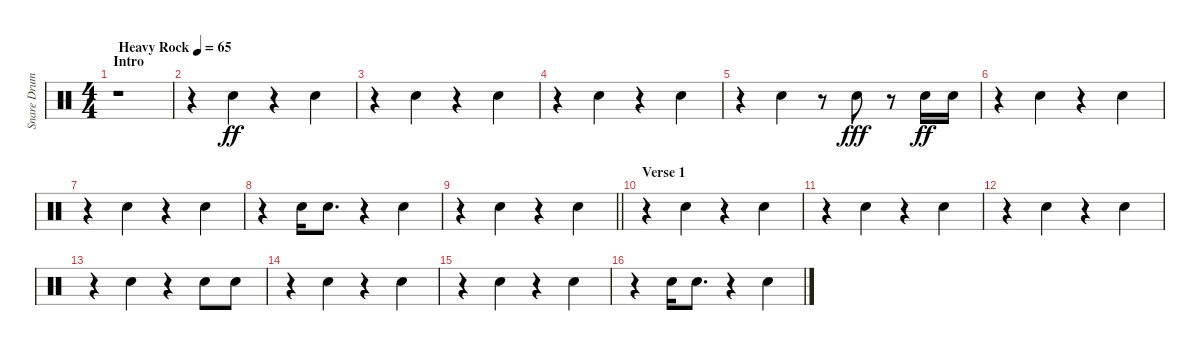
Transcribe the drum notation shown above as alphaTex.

\track ("Snare Drum" "Snare Drum") {instrument percussion}
\staff {score}
\articulation defaults
\ts (4 4)
\section ("" "Intro")
\tempo (65 "Heavy Rock")
\clef neutral
\ks c
r.1{dy ff} |
r.4 "Electric Snare (hit)".4 r.4 "Electric Snare (hit)".4 |
r.4 "Electric Snare (hit)".4 r.4 "Electric Snare (hit)".4 |
r.4 "Electric Snare (hit)".4 r.4 "Electric Snare (hit)".4 |
r.4 "Electric Snare (hit)".4 r.8 "Electric Snare (hit)".8{dy fff} r.8 "Electric Snare (hit)".16{dy ff} "Electric Snare (hit)".16 |
r.4 "Electric Snare (hit)".4 r.4 "Electric Snare (hit)".4 |
r.4 "Electric Snare (hit)".4 r.4 "Electric Snare (hit)".4 |
r.4{beam merge} "Electric Snare (hit)".16 "Electric Snare (hit)".8{d} r.4{beam merge} "Electric Snare (hit)".4 |
\barLineRight lightlight
r.4 "Electric Snare (hit)".4 r.4 "Electric Snare (hit)".4 |
\section ("" "Verse 1")
r.4 "Electric Snare (hit)".4 r.4 "Electric Snare (hit)".4 |
r.4 "Electric Snare (hit)".4 r.4 "Electric Snare (hit)".4 |
r.4 "Electric Snare (hit)".4 r.4 "Electric Snare (hit)".4 |
r.4{beam merge} "Electric Snare (hit)".4 r.4{beam merge} "Electric Snare (hit)".8 "Electric Snare (hit)".8 |
r.4 "Electric Snare (hit)".4 r.4 "Electric Snare (hit)".4 |
r.4 "Electric Snare (hit)".4 r.4 "Electric Snare (hit)".4 |
r.4{beam merge} "Electric Snare (hit)".16 "Electric Snare (hit)".8{d} r.4{beam merge} "Electric Snare (hit)".4
